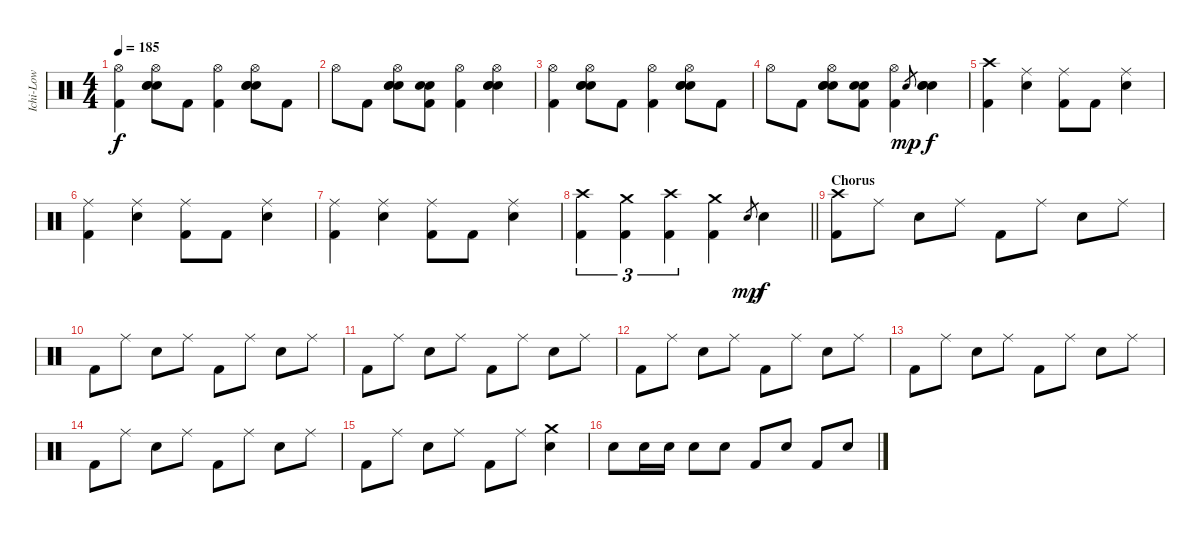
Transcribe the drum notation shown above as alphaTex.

\track ("Ichi-Low" "Ichi-Low") {instrument percussion}
\staff {score}
\articulation defaults
\ts (4 4)
\tempo 185
\clef neutral
\ks c
("Hi-Hat (open)" "Kick (hit) 2").4{dy f} ("Hi-Hat (open)" "Hand Clap (hit)" "Hand Clap (hit)" "Electric Snare (hit)").8 "Kick (hit) 2".8 ("Hi-Hat (open)" "Kick (hit) 2").4 ("Hi-Hat (open)" "Hand Clap (hit)" "Hand Clap (hit)" "Electric Snare (hit)").8 "Kick (hit) 2".8 |
"Hi-Hat (open)".8 "Kick (hit) 2".8 ("Hi-Hat (open)" "Hand Clap (hit)" "Hand Clap (hit)" "Electric Snare (hit)").8 ("Hand Clap (hit)" "Hand Clap (hit)" "Kick (hit) 2").8 ("Hi-Hat (open)" "Kick (hit) 2").4 ("Hi-Hat (open)" "Hand Clap (hit)" "Hand Clap (hit)" "Electric Snare (hit)").4 |
("Hi-Hat (open)" "Kick (hit) 2").4 ("Hi-Hat (open)" "Hand Clap (hit)" "Hand Clap (hit)" "Electric Snare (hit)").8 "Kick (hit) 2".8 ("Hi-Hat (open)" "Kick (hit) 2").4 ("Hi-Hat (open)" "Hand Clap (hit)" "Hand Clap (hit)" "Electric Snare (hit)").8 "Kick (hit) 2".8 |
"Hi-Hat (open)".8 "Kick (hit) 2".8 ("Hi-Hat (open)" "Hand Clap (hit)" "Hand Clap (hit)" "Electric Snare (hit)").8 ("Hand Clap (hit)" "Hand Clap (hit)" "Kick (hit) 2").8 ("Hi-Hat (open)" "Kick (hit) 2").4 "Electric Snare (hit)".8{gr dy mp} ("Hand Clap (hit)" "Hand Clap (hit)" "Electric Snare (hit)").4{dy f} |
("Crash high (hit)" "Kick (hit) 2").4 ("Ride (middle)" "Electric Snare (hit)").4 ("Ride (middle)" "Kick (hit) 2").8 "Kick (hit) 2".8 ("Ride (middle)" "Electric Snare (hit)").4 |
("Ride (middle)" "Kick (hit) 2").4 ("Ride (middle)" "Electric Snare (hit)").4 ("Ride (middle)" "Kick (hit) 2").8 "Kick (hit) 2".8 ("Ride (middle)" "Electric Snare (hit)").4 |
("Ride (middle)" "Kick (hit) 2").4 ("Ride (middle)" "Electric Snare (hit)").4 ("Ride (middle)" "Kick (hit) 2").8 "Kick (hit) 2".8 ("Ride (middle)" "Electric Snare (hit)").4 |
\barLineRight lightlight
("Crash high (hit)" "Kick (hit) 2").4{tu (3 2)} ("Crash medium (hit)" "Kick (hit) 2").4{tu (3 2)} ("Crash high (hit)" "Kick (hit) 2").4{tu (3 2)} ("Crash medium (hit)" "Kick (hit) 2").4 "Electric Snare (hit)".8{gr dy mp} "Electric Snare (hit)".4{dy f} |
\section ("" "Chorus")
("Crash high (hit)" "Kick (hit) 2").8 "Ride (middle)".8 "Electric Snare (hit)".8 "Ride (middle)".8 "Kick (hit) 2".8 "Ride (middle)".8 "Electric Snare (hit)".8 "Ride (middle)".8 |
"Kick (hit) 2".8 "Ride (middle)".8 "Electric Snare (hit)".8 "Ride (middle)".8 "Kick (hit) 2".8 "Ride (middle)".8 "Electric Snare (hit)".8 "Ride (middle)".8 |
"Kick (hit) 2".8 "Ride (middle)".8 "Electric Snare (hit)".8 "Ride (middle)".8 "Kick (hit) 2".8 "Ride (middle)".8 "Electric Snare (hit)".8 "Ride (middle)".8 |
"Kick (hit) 2".8 "Ride (middle)".8 "Electric Snare (hit)".8 "Ride (middle)".8 "Kick (hit) 2".8 "Ride (middle)".8 "Electric Snare (hit)".8 "Ride (middle)".8 |
"Kick (hit) 2".8 "Ride (middle)".8 "Electric Snare (hit)".8 "Ride (middle)".8 "Kick (hit) 2".8 "Ride (middle)".8 "Electric Snare (hit)".8 "Ride (middle)".8 |
"Kick (hit) 2".8 "Ride (middle)".8 "Electric Snare (hit)".8 "Ride (middle)".8 "Kick (hit) 2".8 "Ride (middle)".8 "Electric Snare (hit)".8 "Ride (middle)".8 |
"Kick (hit) 2".8 "Ride (middle)".8 "Electric Snare (hit)".8 "Ride (middle)".8 "Kick (hit) 2".8 "Ride (middle)".8 ("Crash medium (hit)" "Electric Snare (hit)").4 |
"Electric Snare (hit)".8 "Electric Snare (hit)".16 "Electric Snare (hit)".16 "Electric Snare (hit)".8 "Electric Snare (hit)".8 "Kick (hit) 2".8 "Electric Snare (hit)".8 "Kick (hit) 2".8 "Electric Snare (hit)".8
